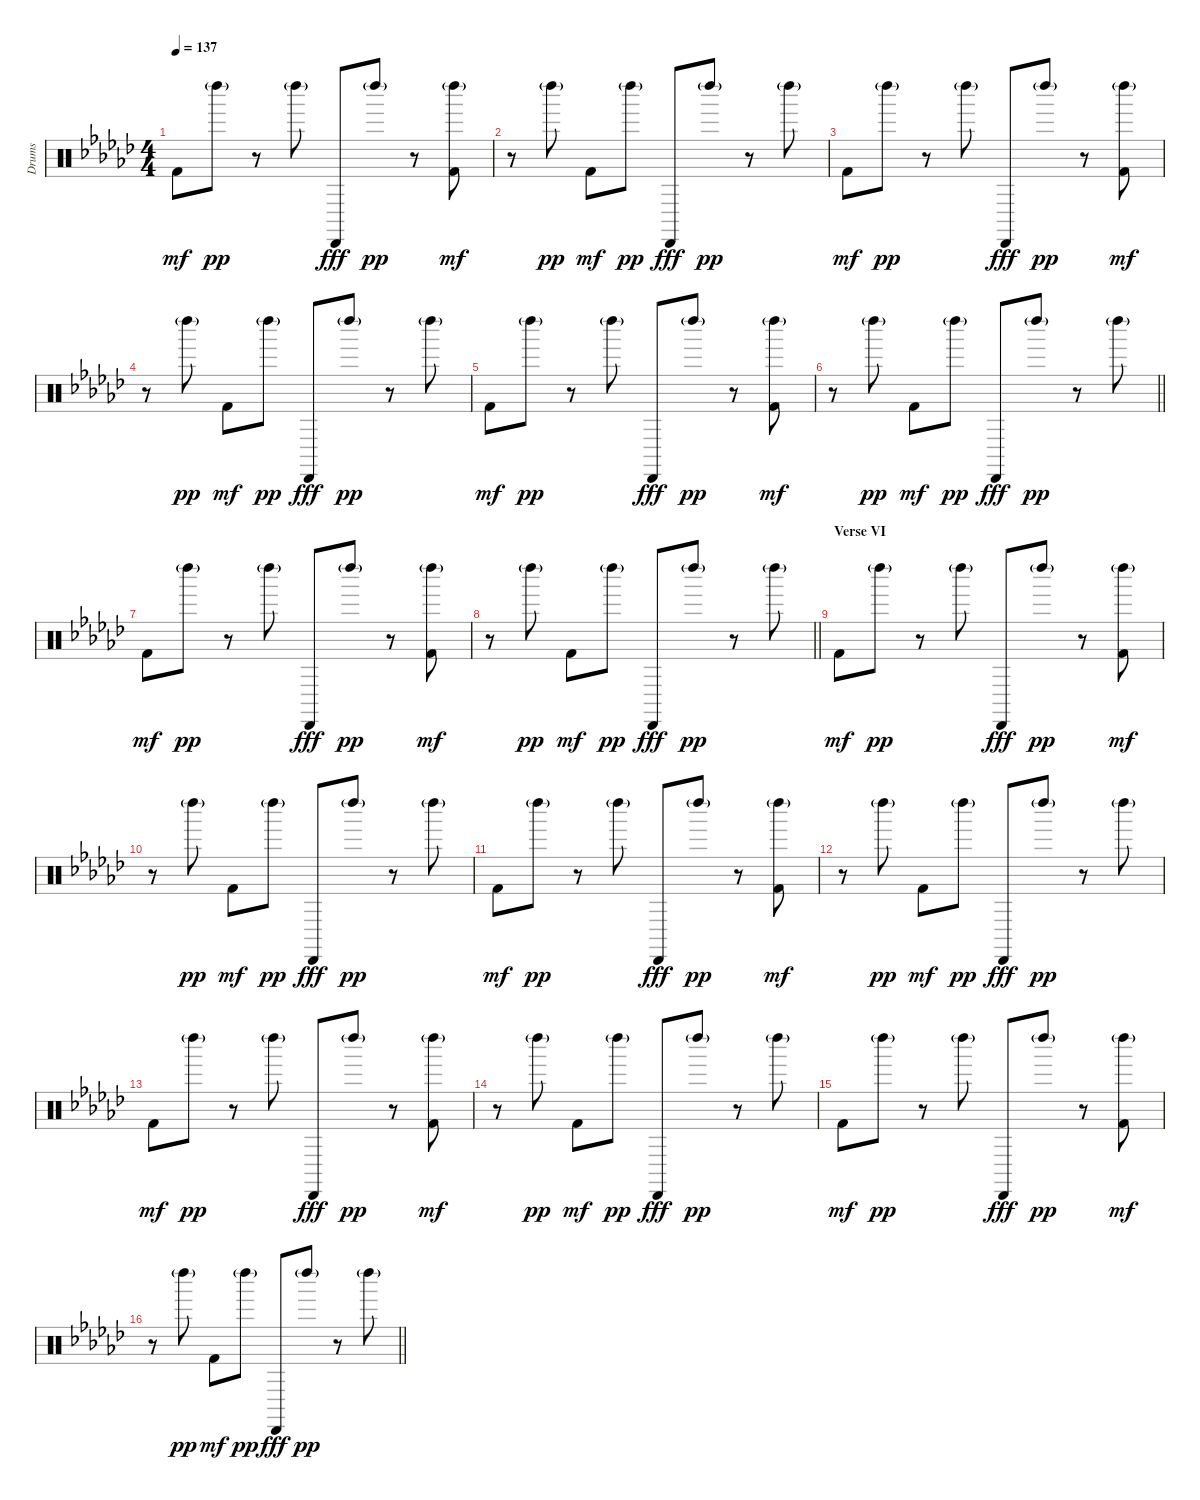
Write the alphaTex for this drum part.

\track ("Drums" "Drums") {instrument percussion}
\staff
\articulation defaults
\ts (4 4)
\tempo 137
\clef neutral
\ks ebminor "Kick (hit) 2".8{dy mf} "Left Maraca (hit)"{g}.8{dy pp}
r.8 "Left Maraca (hit)"{g}.8 "Cabasa (hit)".8{dy fff} "Left Maraca (hit)"{g}.8{dy pp} r.8 ("Left Maraca (hit)"{g} "Kick (hit) 2").8{dy mf} |
r.8 "Left Maraca (hit)"{g}.8{dy pp} "Kick (hit) 2".8{dy mf} "Left Maraca (hit)"{g}.8{dy pp} "Cabasa (hit)".8{dy fff} "Left Maraca (hit)"{g}.8{dy pp} r.8 "Left Maraca (hit)"{g}.8 |
"Kick (hit) 2".8{dy mf} "Left Maraca (hit)"{g}.8{dy pp} r.8 "Left Maraca (hit)"{g}.8 "Cabasa (hit)".8{dy fff} "Left Maraca (hit)"{g}.8{dy pp} r.8 ("Left Maraca (hit)"{g} "Kick (hit) 2").8{dy mf} |
r.8 "Left Maraca (hit)"{g}.8{dy pp} "Kick (hit) 2".8{dy mf} "Left Maraca (hit)"{g}.8{dy pp} "Cabasa (hit)".8{dy fff} "Left Maraca (hit)"{g}.8{dy pp} r.8 "Left Maraca (hit)"{g}.8 |
"Kick (hit) 2".8{dy mf} "Left Maraca (hit)"{g}.8{dy pp} r.8 "Left Maraca (hit)"{g}.8 "Cabasa (hit)".8{dy fff} "Left Maraca (hit)"{g}.8{dy pp} r.8 ("Left Maraca (hit)"{g} "Kick (hit) 2").8{dy mf} |
\barLineRight lightlight
r.8 "Left Maraca (hit)"{g}.8{dy pp} "Kick (hit) 2".8{dy mf} "Left Maraca (hit)"{g}.8{dy pp} "Cabasa (hit)".8{dy fff} "Left Maraca (hit)"{g}.8{dy pp} r.8 "Left Maraca (hit)"{g}.8 |
"Kick (hit) 2".8{dy mf} "Left Maraca (hit)"{g}.8{dy pp} r.8 "Left Maraca (hit)"{g}.8 "Cabasa (hit)".8{dy fff} "Left Maraca (hit)"{g}.8{dy pp} r.8 ("Left Maraca (hit)"{g} "Kick (hit) 2").8{dy mf} |
\barLineRight lightlight
r.8 "Left Maraca (hit)"{g}.8{dy pp} "Kick (hit) 2".8{dy mf} "Left Maraca (hit)"{g}.8{dy pp} "Cabasa (hit)".8{dy fff} "Left Maraca (hit)"{g}.8{dy pp} r.8 "Left Maraca (hit)"{g}.8 |
\section ("" "Verse VI")
"Kick (hit) 2".8{dy mf} "Left Maraca (hit)"{g}.8{dy pp} r.8 "Left Maraca (hit)"{g}.8 "Cabasa (hit)".8{dy fff} "Left Maraca (hit)"{g}.8{dy pp} r.8 ("Left Maraca (hit)"{g} "Kick (hit) 2").8{dy mf} |
r.8 "Left Maraca (hit)"{g}.8{dy pp} "Kick (hit) 2".8{dy mf} "Left Maraca (hit)"{g}.8{dy pp} "Cabasa (hit)".8{dy fff} "Left Maraca (hit)"{g}.8{dy pp} r.8 "Left Maraca (hit)"{g}.8 |
"Kick (hit) 2".8{dy mf} "Left Maraca (hit)"{g}.8{dy pp} r.8 "Left Maraca (hit)"{g}.8 "Cabasa (hit)".8{dy fff} "Left Maraca (hit)"{g}.8{dy pp} r.8 ("Left Maraca (hit)"{g} "Kick (hit) 2").8{dy mf} |
r.8 "Left Maraca (hit)"{g}.8{dy pp} "Kick (hit) 2".8{dy mf} "Left Maraca (hit)"{g}.8{dy pp} "Cabasa (hit)".8{dy fff} "Left Maraca (hit)"{g}.8{dy pp} r.8 "Left Maraca (hit)"{g}.8 |
"Kick (hit) 2".8{dy mf} "Left Maraca (hit)"{g}.8{dy pp} r.8 "Left Maraca (hit)"{g}.8 "Cabasa (hit)".8{dy fff} "Left Maraca (hit)"{g}.8{dy pp} r.8 ("Left Maraca (hit)"{g} "Kick (hit) 2").8{dy mf} |
r.8 "Left Maraca (hit)"{g}.8{dy pp} "Kick (hit) 2".8{dy mf} "Left Maraca (hit)"{g}.8{dy pp} "Cabasa (hit)".8{dy fff} "Left Maraca (hit)"{g}.8{dy pp} r.8 "Left Maraca (hit)"{g}.8 |
"Kick (hit) 2".8{dy mf} "Left Maraca (hit)"{g}.8{dy pp} r.8 "Left Maraca (hit)"{g}.8 "Cabasa (hit)".8{dy fff} "Left Maraca (hit)"{g}.8{dy pp} r.8 ("Left Maraca (hit)"{g} "Kick (hit) 2").8{dy mf} |
\barLineRight lightlight
r.8 "Left Maraca (hit)"{g}.8{dy pp} "Kick (hit) 2".8{dy mf} "Left Maraca (hit)"{g}.8{dy pp} "Cabasa (hit)".8{dy fff} "Left Maraca (hit)"{g}.8{dy pp} r.8 "Left Maraca (hit)"{g}.8
